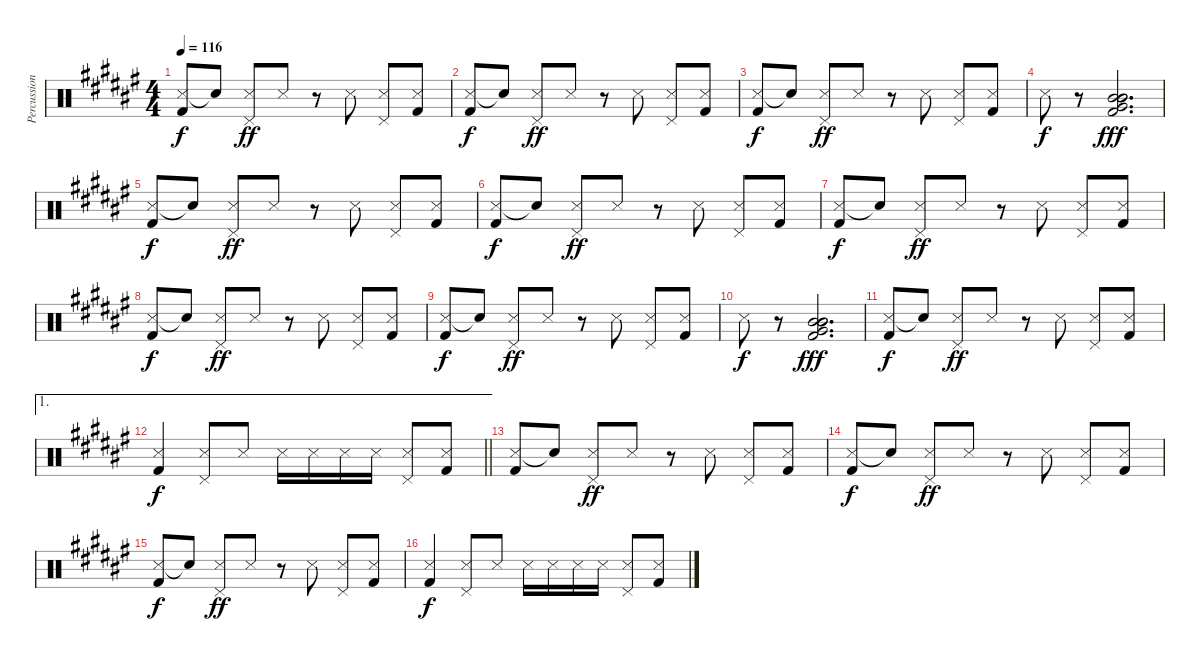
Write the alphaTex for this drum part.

\track ("Percussion" "Percussion") {instrument percussion}
\staff {score}
\articulation defaults
\ts (4 4)
\tempo 116
\clef neutral
\ks f#
("Snare (side stick) 3" "Kick (hit) 2").8{dy f} "Snare (hit)"{t}.8 ("Snare (side stick) 3" "Pedal Hi-Hat (hit)").8{dy ff} "Snare (side stick) 3".8 r.8 "Snare (side stick) 3".8 ("Snare (side stick) 3" "Pedal Hi-Hat (hit)").8 ("Snare (side stick) 3" "Kick (hit) 2").8 |
("Snare (side stick) 3" "Kick (hit) 2").8{dy f} "Snare (hit)"{t}.8 ("Snare (side stick) 3" "Pedal Hi-Hat (hit)").8{dy ff} "Snare (side stick) 3".8 r.8 "Snare (side stick) 3".8 ("Snare (side stick) 3" "Pedal Hi-Hat (hit)").8 ("Snare (side stick) 3" "Kick (hit) 2").8 |
("Snare (side stick) 3" "Kick (hit) 2").8{dy f} "Snare (hit)"{t}.8 ("Snare (side stick) 3" "Pedal Hi-Hat (hit)").8{dy ff} "Snare (side stick) 3".8 r.8 "Snare (side stick) 3".8 ("Snare (side stick) 3" "Pedal Hi-Hat (hit)").8 ("Snare (side stick) 3" "Kick (hit) 2").8 |
"Snare (side stick) 3".8{dy f} r.8 ("Mid Tom (hit)" "Mid Tom (hit)" "Mid Tom (hit)" "Very Low Tom (hit)" "Kick (hit) 2").2{d dy fff} |
("Snare (side stick) 3" "Kick (hit) 2").8{dy f} "Snare (hit)"{t}.8 ("Snare (side stick) 3" "Pedal Hi-Hat (hit)").8{dy ff} "Snare (side stick) 3".8 r.8 "Snare (side stick) 3".8 ("Snare (side stick) 3" "Pedal Hi-Hat (hit)").8 ("Snare (side stick) 3" "Kick (hit) 2").8 |
("Snare (side stick) 3" "Kick (hit) 2").8{dy f} "Snare (hit)"{t}.8 ("Snare (side stick) 3" "Pedal Hi-Hat (hit)").8{dy ff} "Snare (side stick) 3".8 r.8 "Snare (side stick) 3".8 ("Snare (side stick) 3" "Pedal Hi-Hat (hit)").8 ("Snare (side stick) 3" "Kick (hit) 2").8 |
("Snare (side stick) 3" "Kick (hit) 2").8{dy f} "Snare (hit)"{t}.8 ("Snare (side stick) 3" "Pedal Hi-Hat (hit)").8{dy ff} "Snare (side stick) 3".8 r.8 "Snare (side stick) 3".8 ("Snare (side stick) 3" "Pedal Hi-Hat (hit)").8 ("Snare (side stick) 3" "Kick (hit) 2").8 |
("Snare (side stick) 3" "Kick (hit) 2").8{dy f} "Snare (hit)"{t}.8 ("Snare (side stick) 3" "Pedal Hi-Hat (hit)").8{dy ff} "Snare (side stick) 3".8 r.8 "Snare (side stick) 3".8 ("Snare (side stick) 3" "Pedal Hi-Hat (hit)").8 ("Snare (side stick) 3" "Kick (hit) 2").8 |
("Snare (side stick) 3" "Kick (hit) 2").8{dy f} "Snare (hit)"{t}.8 ("Snare (side stick) 3" "Pedal Hi-Hat (hit)").8{dy ff} "Snare (side stick) 3".8 r.8 "Snare (side stick) 3".8 ("Snare (side stick) 3" "Pedal Hi-Hat (hit)").8 ("Snare (side stick) 3" "Kick (hit) 2").8 |
"Snare (side stick) 3".8{dy f} r.8 ("Mid Tom (hit)" "Mid Tom (hit)" "Mid Tom (hit)" "Very Low Tom (hit)" "Kick (hit) 2").2{d dy fff} |
("Snare (side stick) 3" "Kick (hit) 2").8{dy f} "Snare (hit)"{t}.8 ("Snare (side stick) 3" "Pedal Hi-Hat (hit)").8{dy ff} "Snare (side stick) 3".8 r.8 "Snare (side stick) 3".8 ("Snare (side stick) 3" "Pedal Hi-Hat (hit)").8 ("Snare (side stick) 3" "Kick (hit) 2").8 |
\ae 1
\barLineRight lightlight
("Snare (side stick) 3" "Kick (hit) 2").4{dy f} ("Snare (side stick) 3" "Pedal Hi-Hat (hit)").8 "Snare (side stick) 3".8 "Snare (side stick) 3".16 "Snare (side stick) 3".16 "Snare (side stick) 3".16 "Snare (side stick) 3".16 ("Snare (side stick) 3" "Pedal Hi-Hat (hit)").8 ("Snare (side stick) 3" "Kick (hit) 2").8 |
("Snare (side stick) 3" "Kick (hit) 2").8 "Snare (hit)"{t}.8 ("Snare (side stick) 3" "Pedal Hi-Hat (hit)").8{dy ff} "Snare (side stick) 3".8 r.8 "Snare (side stick) 3".8 ("Snare (side stick) 3" "Pedal Hi-Hat (hit)").8 ("Snare (side stick) 3" "Kick (hit) 2").8 |
("Snare (side stick) 3" "Kick (hit) 2").8{dy f} "Snare (hit)"{t}.8 ("Snare (side stick) 3" "Pedal Hi-Hat (hit)").8{dy ff} "Snare (side stick) 3".8 r.8 "Snare (side stick) 3".8 ("Snare (side stick) 3" "Pedal Hi-Hat (hit)").8 ("Snare (side stick) 3" "Kick (hit) 2").8 |
("Snare (side stick) 3" "Kick (hit) 2").8{dy f} "Snare (hit)"{t}.8 ("Snare (side stick) 3" "Pedal Hi-Hat (hit)").8{dy ff} "Snare (side stick) 3".8 r.8 "Snare (side stick) 3".8 ("Snare (side stick) 3" "Pedal Hi-Hat (hit)").8 ("Snare (side stick) 3" "Kick (hit) 2").8 |
("Snare (side stick) 3" "Kick (hit) 2").4{dy f} ("Snare (side stick) 3" "Pedal Hi-Hat (hit)").8 "Snare (side stick) 3".8 "Snare (side stick) 3".16 "Snare (side stick) 3".16 "Snare (side stick) 3".16 "Snare (side stick) 3".16 ("Snare (side stick) 3" "Pedal Hi-Hat (hit)").8 ("Snare (side stick) 3" "Kick (hit) 2").8
